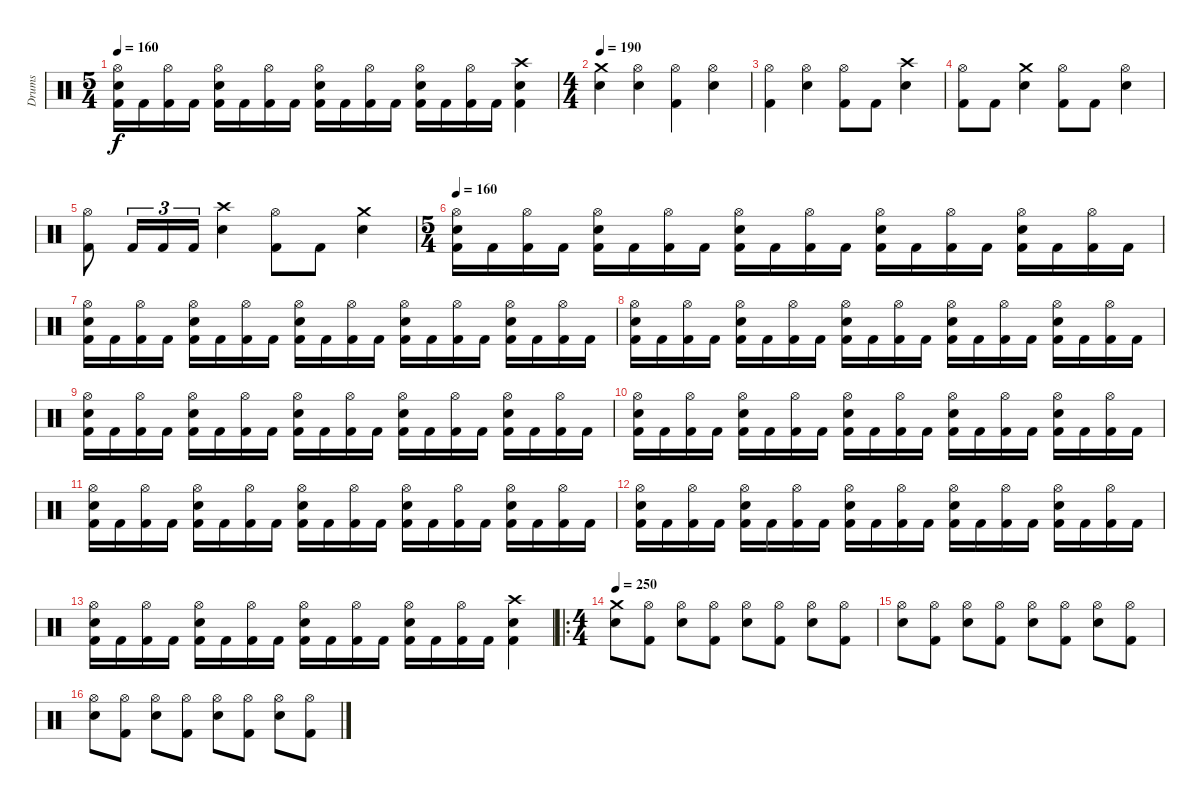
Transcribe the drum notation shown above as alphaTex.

\track ("Drums" "Drums") {instrument percussion}
\staff {score}
\articulation defaults
\ts (5 4)
\tempo 160
\clef neutral
\ks c
("Hi-Hat (open)" "Electric Snare (hit)" "Kick (hit) 2").16{dy f} "Kick (hit) 2".16 ("Hi-Hat (open)" "Kick (hit) 2").16 "Kick (hit) 2".16 ("Hi-Hat (open)" "Electric Snare (hit)" "Kick (hit) 2").16 "Kick (hit) 2".16 ("Hi-Hat (open)" "Kick (hit) 2").16 "Kick (hit) 2".16 ("Hi-Hat (open)" "Electric Snare (hit)" "Kick (hit) 2").16 "Kick (hit) 2".16 ("Hi-Hat (open)" "Kick (hit) 2").16 "Kick (hit) 2".16 ("Hi-Hat (open)" "Electric Snare (hit)" "Kick (hit) 2").16 "Kick (hit) 2".16 ("Hi-Hat (open)" "Kick (hit) 2").16 "Kick (hit) 2".16 ("Crash high (hit)" "Electric Snare (hit)" "Kick (hit) 2").4 |
\ts (4 4)
\tempo 190
("Crash medium (hit)" "Electric Snare (hit)").4 ("Hi-Hat (open)" "Electric Snare (hit)").4 ("Hi-Hat (open)" "Kick (hit) 2").4 ("Hi-Hat (open)" "Electric Snare (hit)").4 |
("Hi-Hat (open)" "Kick (hit) 2").4 ("Hi-Hat (open)" "Electric Snare (hit)").4 ("Hi-Hat (open)" "Kick (hit) 2").8 "Kick (hit) 2".8 ("Crash high (hit)" "Electric Snare (hit)").4 |
("Hi-Hat (open)" "Kick (hit) 2").8 "Kick (hit) 2".8 ("Crash medium (hit)" "Electric Snare (hit)").4 ("Hi-Hat (open)" "Kick (hit) 2").8 "Kick (hit) 2".8 ("Hi-Hat (open)" "Electric Snare (hit)").4 |
("Hi-Hat (open)" "Kick (hit) 2").8 "Kick (hit) 2".16{tu (3 2)} "Kick (hit) 2".16{tu (3 2)} "Kick (hit) 2".16{tu (3 2)} ("Crash high (hit)" "Electric Snare (hit)").4 ("Hi-Hat (open)" "Kick (hit) 2").8 "Kick (hit) 2".8 ("Crash medium (hit)" "Electric Snare (hit)").4 |
\ts (5 4)
\tempo 160
("Hi-Hat (open)" "Electric Snare (hit)" "Kick (hit) 2").16 "Kick (hit) 2".16 ("Hi-Hat (open)" "Kick (hit) 2").16 "Kick (hit) 2".16 ("Hi-Hat (open)" "Electric Snare (hit)" "Kick (hit) 2").16 "Kick (hit) 2".16 ("Hi-Hat (open)" "Kick (hit) 2").16 "Kick (hit) 2".16 ("Hi-Hat (open)" "Electric Snare (hit)" "Kick (hit) 2").16 "Kick (hit) 2".16 ("Hi-Hat (open)" "Kick (hit) 2").16 "Kick (hit) 2".16 ("Hi-Hat (open)" "Electric Snare (hit)" "Kick (hit) 2").16 "Kick (hit) 2".16 ("Hi-Hat (open)" "Kick (hit) 2").16 "Kick (hit) 2".16 ("Hi-Hat (open)" "Electric Snare (hit)" "Kick (hit) 2").16 "Kick (hit) 2".16 ("Hi-Hat (open)" "Kick (hit) 2").16 "Kick (hit) 2".16 |
("Hi-Hat (open)" "Electric Snare (hit)" "Kick (hit) 2").16 "Kick (hit) 2".16 ("Hi-Hat (open)" "Kick (hit) 2").16 "Kick (hit) 2".16 ("Hi-Hat (open)" "Electric Snare (hit)" "Kick (hit) 2").16 "Kick (hit) 2".16 ("Hi-Hat (open)" "Kick (hit) 2").16 "Kick (hit) 2".16 ("Hi-Hat (open)" "Electric Snare (hit)" "Kick (hit) 2").16 "Kick (hit) 2".16 ("Hi-Hat (open)" "Kick (hit) 2").16 "Kick (hit) 2".16 ("Hi-Hat (open)" "Electric Snare (hit)" "Kick (hit) 2").16 "Kick (hit) 2".16 ("Hi-Hat (open)" "Kick (hit) 2").16 "Kick (hit) 2".16 ("Hi-Hat (open)" "Electric Snare (hit)" "Kick (hit) 2").16 "Kick (hit) 2".16 ("Hi-Hat (open)" "Kick (hit) 2").16 "Kick (hit) 2".16 |
("Hi-Hat (open)" "Electric Snare (hit)" "Kick (hit) 2").16 "Kick (hit) 2".16 ("Hi-Hat (open)" "Kick (hit) 2").16 "Kick (hit) 2".16 ("Hi-Hat (open)" "Electric Snare (hit)" "Kick (hit) 2").16 "Kick (hit) 2".16 ("Hi-Hat (open)" "Kick (hit) 2").16 "Kick (hit) 2".16 ("Hi-Hat (open)" "Electric Snare (hit)" "Kick (hit) 2").16 "Kick (hit) 2".16 ("Hi-Hat (open)" "Kick (hit) 2").16 "Kick (hit) 2".16 ("Hi-Hat (open)" "Electric Snare (hit)" "Kick (hit) 2").16 "Kick (hit) 2".16 ("Hi-Hat (open)" "Kick (hit) 2").16 "Kick (hit) 2".16 ("Hi-Hat (open)" "Electric Snare (hit)" "Kick (hit) 2").16 "Kick (hit) 2".16 ("Hi-Hat (open)" "Kick (hit) 2").16 "Kick (hit) 2".16 |
("Hi-Hat (open)" "Electric Snare (hit)" "Kick (hit) 2").16 "Kick (hit) 2".16 ("Hi-Hat (open)" "Kick (hit) 2").16 "Kick (hit) 2".16 ("Hi-Hat (open)" "Electric Snare (hit)" "Kick (hit) 2").16 "Kick (hit) 2".16 ("Hi-Hat (open)" "Kick (hit) 2").16 "Kick (hit) 2".16 ("Hi-Hat (open)" "Electric Snare (hit)" "Kick (hit) 2").16 "Kick (hit) 2".16 ("Hi-Hat (open)" "Kick (hit) 2").16 "Kick (hit) 2".16 ("Hi-Hat (open)" "Electric Snare (hit)" "Kick (hit) 2").16 "Kick (hit) 2".16 ("Hi-Hat (open)" "Kick (hit) 2").16 "Kick (hit) 2".16 ("Hi-Hat (open)" "Electric Snare (hit)" "Kick (hit) 2").16 "Kick (hit) 2".16 ("Hi-Hat (open)" "Kick (hit) 2").16 "Kick (hit) 2".16 |
("Hi-Hat (open)" "Electric Snare (hit)" "Kick (hit) 2").16 "Kick (hit) 2".16 ("Hi-Hat (open)" "Kick (hit) 2").16 "Kick (hit) 2".16 ("Hi-Hat (open)" "Electric Snare (hit)" "Kick (hit) 2").16 "Kick (hit) 2".16 ("Hi-Hat (open)" "Kick (hit) 2").16 "Kick (hit) 2".16 ("Hi-Hat (open)" "Electric Snare (hit)" "Kick (hit) 2").16 "Kick (hit) 2".16 ("Hi-Hat (open)" "Kick (hit) 2").16 "Kick (hit) 2".16 ("Hi-Hat (open)" "Electric Snare (hit)" "Kick (hit) 2").16 "Kick (hit) 2".16 ("Hi-Hat (open)" "Kick (hit) 2").16 "Kick (hit) 2".16 ("Hi-Hat (open)" "Electric Snare (hit)" "Kick (hit) 2").16 "Kick (hit) 2".16 ("Hi-Hat (open)" "Kick (hit) 2").16 "Kick (hit) 2".16 |
("Hi-Hat (open)" "Electric Snare (hit)" "Kick (hit) 2").16 "Kick (hit) 2".16 ("Hi-Hat (open)" "Kick (hit) 2").16 "Kick (hit) 2".16 ("Hi-Hat (open)" "Electric Snare (hit)" "Kick (hit) 2").16 "Kick (hit) 2".16 ("Hi-Hat (open)" "Kick (hit) 2").16 "Kick (hit) 2".16 ("Hi-Hat (open)" "Electric Snare (hit)" "Kick (hit) 2").16 "Kick (hit) 2".16 ("Hi-Hat (open)" "Kick (hit) 2").16 "Kick (hit) 2".16 ("Hi-Hat (open)" "Electric Snare (hit)" "Kick (hit) 2").16 "Kick (hit) 2".16 ("Hi-Hat (open)" "Kick (hit) 2").16 "Kick (hit) 2".16 ("Hi-Hat (open)" "Electric Snare (hit)" "Kick (hit) 2").16 "Kick (hit) 2".16 ("Hi-Hat (open)" "Kick (hit) 2").16 "Kick (hit) 2".16 |
("Hi-Hat (open)" "Electric Snare (hit)" "Kick (hit) 2").16 "Kick (hit) 2".16 ("Hi-Hat (open)" "Kick (hit) 2").16 "Kick (hit) 2".16 ("Hi-Hat (open)" "Electric Snare (hit)" "Kick (hit) 2").16 "Kick (hit) 2".16 ("Hi-Hat (open)" "Kick (hit) 2").16 "Kick (hit) 2".16 ("Hi-Hat (open)" "Electric Snare (hit)" "Kick (hit) 2").16 "Kick (hit) 2".16 ("Hi-Hat (open)" "Kick (hit) 2").16 "Kick (hit) 2".16 ("Hi-Hat (open)" "Electric Snare (hit)" "Kick (hit) 2").16 "Kick (hit) 2".16 ("Hi-Hat (open)" "Kick (hit) 2").16 "Kick (hit) 2".16 ("Hi-Hat (open)" "Electric Snare (hit)" "Kick (hit) 2").16 "Kick (hit) 2".16 ("Hi-Hat (open)" "Kick (hit) 2").16 "Kick (hit) 2".16 |
("Hi-Hat (open)" "Electric Snare (hit)" "Kick (hit) 2").16 "Kick (hit) 2".16 ("Hi-Hat (open)" "Kick (hit) 2").16 "Kick (hit) 2".16 ("Hi-Hat (open)" "Electric Snare (hit)" "Kick (hit) 2").16 "Kick (hit) 2".16 ("Hi-Hat (open)" "Kick (hit) 2").16 "Kick (hit) 2".16 ("Hi-Hat (open)" "Electric Snare (hit)" "Kick (hit) 2").16 "Kick (hit) 2".16 ("Hi-Hat (open)" "Kick (hit) 2").16 "Kick (hit) 2".16 ("Hi-Hat (open)" "Electric Snare (hit)" "Kick (hit) 2").16 "Kick (hit) 2".16 ("Hi-Hat (open)" "Kick (hit) 2").16 "Kick (hit) 2".16 ("Crash high (hit)" "Electric Snare (hit)" "Kick (hit) 2").4 |
\ro
\ts (4 4)
\tempo 250
("Crash medium (hit)" "Electric Snare (hit)").8 ("Hi-Hat (open)" "Kick (hit) 2").8 ("Hi-Hat (open)" "Electric Snare (hit)").8 ("Hi-Hat (open)" "Kick (hit) 2").8 ("Hi-Hat (open)" "Electric Snare (hit)").8 ("Hi-Hat (open)" "Kick (hit) 2").8 ("Hi-Hat (open)" "Electric Snare (hit)").8 ("Hi-Hat (open)" "Kick (hit) 2").8 |
("Hi-Hat (open)" "Electric Snare (hit)").8 ("Hi-Hat (open)" "Kick (hit) 2").8 ("Hi-Hat (open)" "Electric Snare (hit)").8 ("Hi-Hat (open)" "Kick (hit) 2").8 ("Hi-Hat (open)" "Electric Snare (hit)").8 ("Hi-Hat (open)" "Kick (hit) 2").8 ("Hi-Hat (open)" "Electric Snare (hit)").8 ("Hi-Hat (open)" "Kick (hit) 2").8 |
("Hi-Hat (open)" "Electric Snare (hit)").8 ("Hi-Hat (open)" "Kick (hit) 2").8 ("Hi-Hat (open)" "Electric Snare (hit)").8 ("Hi-Hat (open)" "Kick (hit) 2").8 ("Hi-Hat (open)" "Electric Snare (hit)").8 ("Hi-Hat (open)" "Kick (hit) 2").8 ("Hi-Hat (open)" "Electric Snare (hit)").8 ("Hi-Hat (open)" "Kick (hit) 2").8
